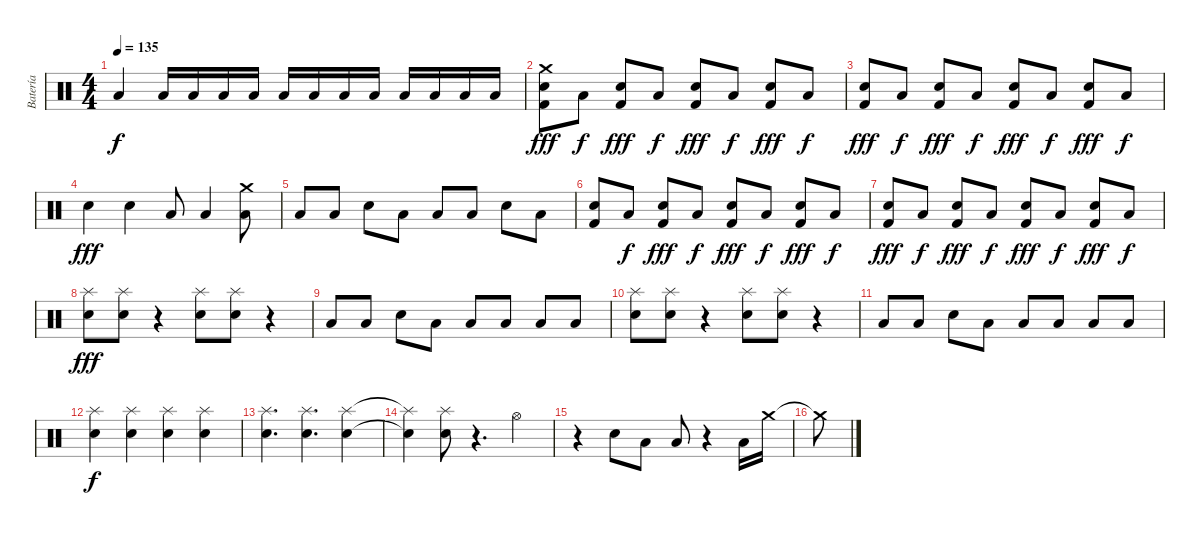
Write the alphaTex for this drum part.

\track ("Batería" "Batería") {instrument percussion}
\staff {score}
\articulation defaults
\ts (4 4)
\tempo 135
\clef neutral
\ks c "Low Floor Tom (hit)".4{dy f} "Low Floor Tom (hit)".16 "Low Floor Tom (hit)".16 "Low Floor Tom (hit)".16 "Low Floor Tom (hit)".16 "Low Floor Tom (hit)".16 "Low Floor Tom (hit)".16 "Low Floor Tom (hit)".16 "Low Floor Tom (hit)".16 "Low Floor Tom (hit)".16 "Low Floor Tom (hit)".16 "Low Floor Tom (hit)".16 "Low Floor Tom (hit)".16
|
("Crash medium (hit)" "Electric Snare (hit)" "Kick (hit) 2").8{dy fff} "Low Floor Tom (hit)".8{dy f} ("Electric Snare (hit)" "Kick (hit) 2").8{dy fff} "Low Floor Tom (hit)".8{dy f} ("Electric Snare (hit)" "Kick (hit) 2").8{dy fff} "Low Floor Tom (hit)".8{dy f} ("Electric Snare (hit)" "Kick (hit) 2").8{dy fff} "Low Floor Tom (hit)".8{dy f} |
("Electric Snare (hit)" "Kick (hit) 2").8{dy fff} "Low Floor Tom (hit)".8{dy f} ("Electric Snare (hit)" "Kick (hit) 2").8{dy fff} "Low Floor Tom (hit)".8{dy f} ("Electric Snare (hit)" "Kick (hit) 2").8{dy fff} "Low Floor Tom (hit)".8{dy f} ("Electric Snare (hit)" "Kick (hit) 2").8{dy fff} "Low Floor Tom (hit)".8{dy f} |
"Electric Snare (hit)".4{dy fff} "Electric Snare (hit)".4 "Low Floor Tom (hit)".8 "Low Floor Tom (hit)".4 ("Crash medium (hit)" "Low Floor Tom (hit)").8 |
"Low Floor Tom (hit)".8 "Low Floor Tom (hit)".8 "Electric Snare (hit)".8 "Low Floor Tom (hit)".8 "Low Floor Tom (hit)".8 "Low Floor Tom (hit)".8 "Electric Snare (hit)".8 "Low Floor Tom (hit)".8 |
("Electric Snare (hit)" "Kick (hit) 2").8 "Low Floor Tom (hit)".8{dy f} ("Electric Snare (hit)" "Kick (hit) 2").8{dy fff} "Low Floor Tom (hit)".8{dy f} ("Electric Snare (hit)" "Kick (hit) 2").8{dy fff} "Low Floor Tom (hit)".8{dy f} ("Electric Snare (hit)" "Kick (hit) 2").8{dy fff} "Low Floor Tom (hit)".8{dy f} |
("Electric Snare (hit)" "Kick (hit) 2").8{dy fff} "Low Floor Tom (hit)".8{dy f} ("Electric Snare (hit)" "Kick (hit) 2").8{dy fff} "Low Floor Tom (hit)".8{dy f} ("Electric Snare (hit)" "Kick (hit) 2").8{dy fff} "Low Floor Tom (hit)".8{dy f} ("Electric Snare (hit)" "Kick (hit) 2").8{dy fff} "Low Floor Tom (hit)".8{dy f} |
("Splash (hit)" "Electric Snare (hit)").8{dy fff} ("Splash (hit)" "Electric Snare (hit)").8 r.4 ("Splash (hit)" "Electric Snare (hit)").8 ("Splash (hit)" "Electric Snare (hit)").8 r.4 |
"Low Floor Tom (hit)".8 "Low Floor Tom (hit)".8 "Electric Snare (hit)".8 "Low Floor Tom (hit)".8 "Low Floor Tom (hit)".8 "Low Floor Tom (hit)".8 "Low Floor Tom (hit)".8 "Low Floor Tom (hit)".8 |
("Splash (hit)" "Electric Snare (hit)").8 ("Splash (hit)" "Electric Snare (hit)").8 r.4 ("Splash (hit)" "Electric Snare (hit)").8 ("Splash (hit)" "Electric Snare (hit)").8 r.4 |
"Low Floor Tom (hit)".8 "Low Floor Tom (hit)".8 "Electric Snare (hit)".8 "Low Floor Tom (hit)".8 "Low Floor Tom (hit)".8 "Low Floor Tom (hit)".8 "Low Floor Tom (hit)".8 "Low Floor Tom (hit)".8 |
("Splash (hit)" "Electric Snare (hit)").4{dy f} ("Splash (hit)" "Electric Snare (hit)").4 ("Splash (hit)" "Electric Snare (hit)").4 ("Splash (hit)" "Electric Snare (hit)").4 |
("Splash (hit)" "Electric Snare (hit)").4{d} ("Splash (hit)" "Electric Snare (hit)").4{d} ("Splash (hit)" "Electric Snare (hit)").4 |
("Splash (hit)"{t} "Electric Snare (hit)"{t}).4 ("Splash (hit)" "Electric Snare (hit)").8 r.4{d} "Hi-Hat (open)".4 |
r.4 "Electric Snare (hit)".8 "Low Floor Tom (hit)".8 "Low Floor Tom (hit)".8 r.4 "Low Floor Tom (hit)".16 "Crash medium (hit)".16 |
"Crash medium (hit)"{t}.8
